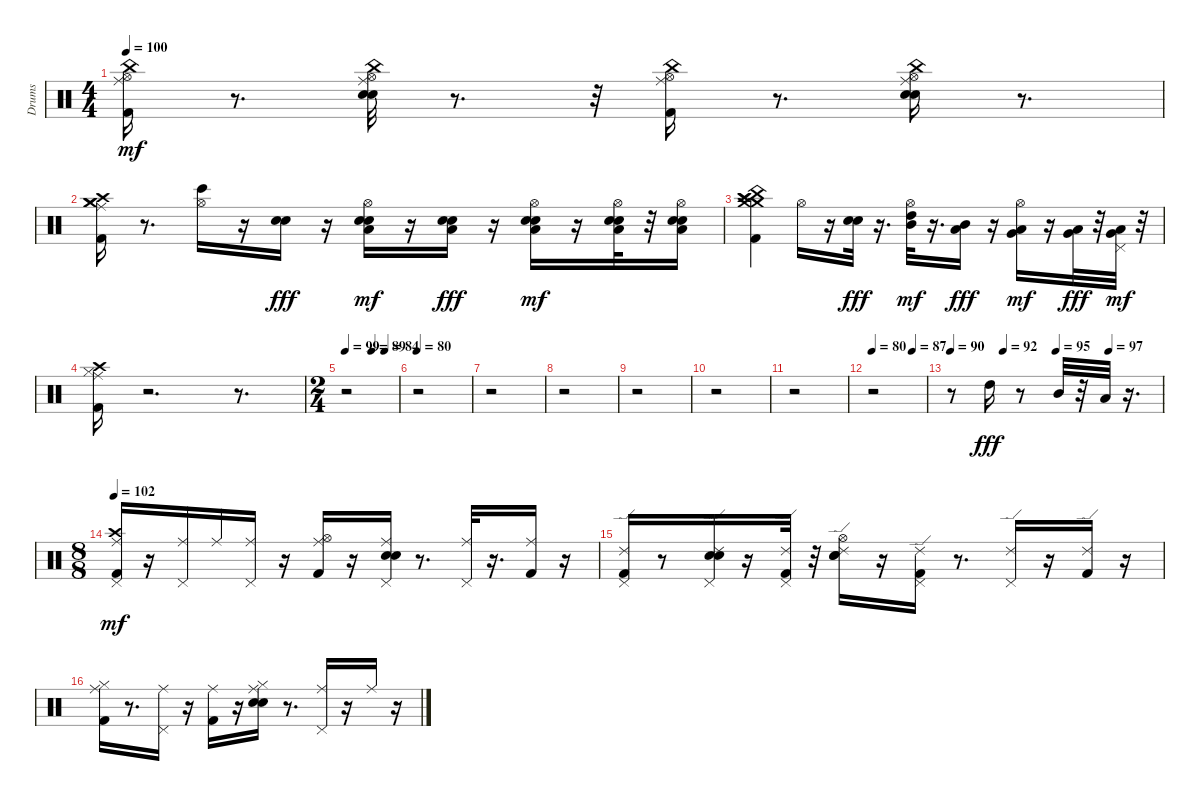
\track ("Drums" "Drums") {instrument percussion}
\staff {score}
\articulation defaults
\ts (4 4)
\tempo 100
\clef neutral
\ks c
("Kick (hit) 2" "China (hit)" "Hi-Hat (open)" "Ride (middle)").16{dy mf} r.8{d} ("Electric Snare (hit)" "Snare (hit) 2" "China (hit)" "Hi-Hat (open)" "Ride (middle)").32 r.8{d} r.32 ("Kick (hit) 2" "China (hit)" "Hi-Hat (open)" "Ride (middle)").16 r.8{d} ("Electric Snare (hit)" "Snare (hit) 2" "China (hit)" "Hi-Hat (open)" "Ride (middle)").16 r.8{d} |
("Crash high (hit)" "Kick (hit) 2" "Ride (middle)" "Crash medium (hit)" "Crash medium (hit)").16 r.8{d} ("Hi-Hat (open)" "Bongo High (hit)").16 r.16 ("Electric Snare (hit)" "Snare (hit) 2").16{dy fff} r.16 ("Electric Snare (hit)" "Low Tom (hit)" "Snare (hit) 2" "Hi-Hat (open)").16{dy mf} r.16 ("Electric Snare (hit)" "Snare (hit) 2" "Low Tom (hit)").16{dy fff} r.16 ("Electric Snare (hit)" "Snare (hit) 2" "Low Tom (hit)" "Hi-Hat (open)").16{dy mf} r.16 ("Electric Snare (hit)" "Snare (hit) 2" "Low Tom (hit)" "Hi-Hat (open)").32 r.32 ("Electric Snare (hit)" "Snare (hit) 2" "Low Tom (hit)" "Hi-Hat (open)").16 |
("Crash high (hit)" "Kick (hit) 2" "Crash medium (hit)" "China (hit)" "Crash medium (hit)" "Crash high (hit)").4 "Hi-Hat (open)".16 r.16 ("Electric Snare (hit)" "Snare (hit) 2").32{dy fff} r.16{d} ("Mid Tom (hit)" "High Tom (hit)" "Hi-Hat (open)").32{dy mf} r.16{d} ("Low Tom (hit)" "Mid Tom (hit)").16{dy fff} r.16 ("Low Tom (hit)" "Very Low Tom (hit)" "Hi-Hat (open)").16{dy mf} r.16 ("Very Low Tom (hit)" "Low Floor Tom (hit)").32{dy fff} r.32 ("Very Low Tom (hit)" "Low Floor Tom (hit)" "Pedal Hi-Hat (hit)").32{dy mf} r.32 |
("Kick (hit) 2" "Crash high (hit)" "Hi-Hat (closed)" "Ride (middle)").16 r.2{d} r.8{d} |
\ts (2 4)
\tempo 99
\tempo (89 0.5)
\tempo (84 0.75)
r.2 |
\tempo 80
r.2 |
r.2 |
r.2 |
r.2 |
r.2 |
r.2 |
\tempo 80
\tempo (87 0.75)
r.2 |
\tempo 90
\tempo (92 0.25)
\tempo (95 0.5)
\tempo (97 0.75)
r.8 "High Tom (hit)".16{dy fff} r.8 "Mid Tom (hit)".32 r.32 "Low Tom (hit)".32 r.16{d} |
\ts (8 8)
\tempo 102
("Crash high (hit)" "Kick (hit) 2" "Pedal Hi-Hat (hit)" "Ride (middle)").16{dy mf} r.16 ("Pedal Hi-Hat (hit)" "Ride (middle)").16 "Ride (middle)".16 ("Pedal Hi-Hat (hit)" "Ride (middle)").16 r.16 ("Kick (hit) 2" "Hi-Hat (open)" "Ride (middle)").16 r.16 ("Electric Snare (hit)" "Snare (hit) 2" "Pedal Hi-Hat (hit)" "Ride (middle)").16 r.8{d} ("Pedal Hi-Hat (hit)" "Ride (middle)").32 r.16{d} ("Kick (hit) 2" "Ride (middle)").16 r.16 |
("Kick (hit) 2" "Pedal Hi-Hat (hit)" "Ride (edge) 2").16 r.8 ("Electric Snare (hit)" "Snare (hit) 2" "Pedal Hi-Hat (hit)" "Ride (edge) 2").16 r.16 ("Kick (hit) 2" "Pedal Hi-Hat (hit)" "Ride (edge) 2").32 r.32 ("Electric Snare (hit)" "Snare (hit) 2" "Hi-Hat (open)" "Ride (edge) 2").16 r.16 ("Kick (hit) 2" "Pedal Hi-Hat (hit)" "Ride (edge) 2").16 r.8{d} ("Pedal Hi-Hat (hit)" "Ride (edge) 2").16 r.16 ("Kick (hit) 2" "Ride (edge) 2").16 r.16 |
("Kick (hit) 2" "Hi-Hat (closed)" "Ride (middle)").16 r.8{d} ("Pedal Hi-Hat (hit)" "Ride (middle)").16 r.16 ("Kick (hit) 2" "Ride (middle)").16 r.16 ("Electric Snare (hit)" "Snare (hit) 2" "Hi-Hat (closed)" "Ride (middle)").16 r.8{d} ("Pedal Hi-Hat (hit)" "Ride (middle)").16 r.16 "Ride (middle)".16 r.16
